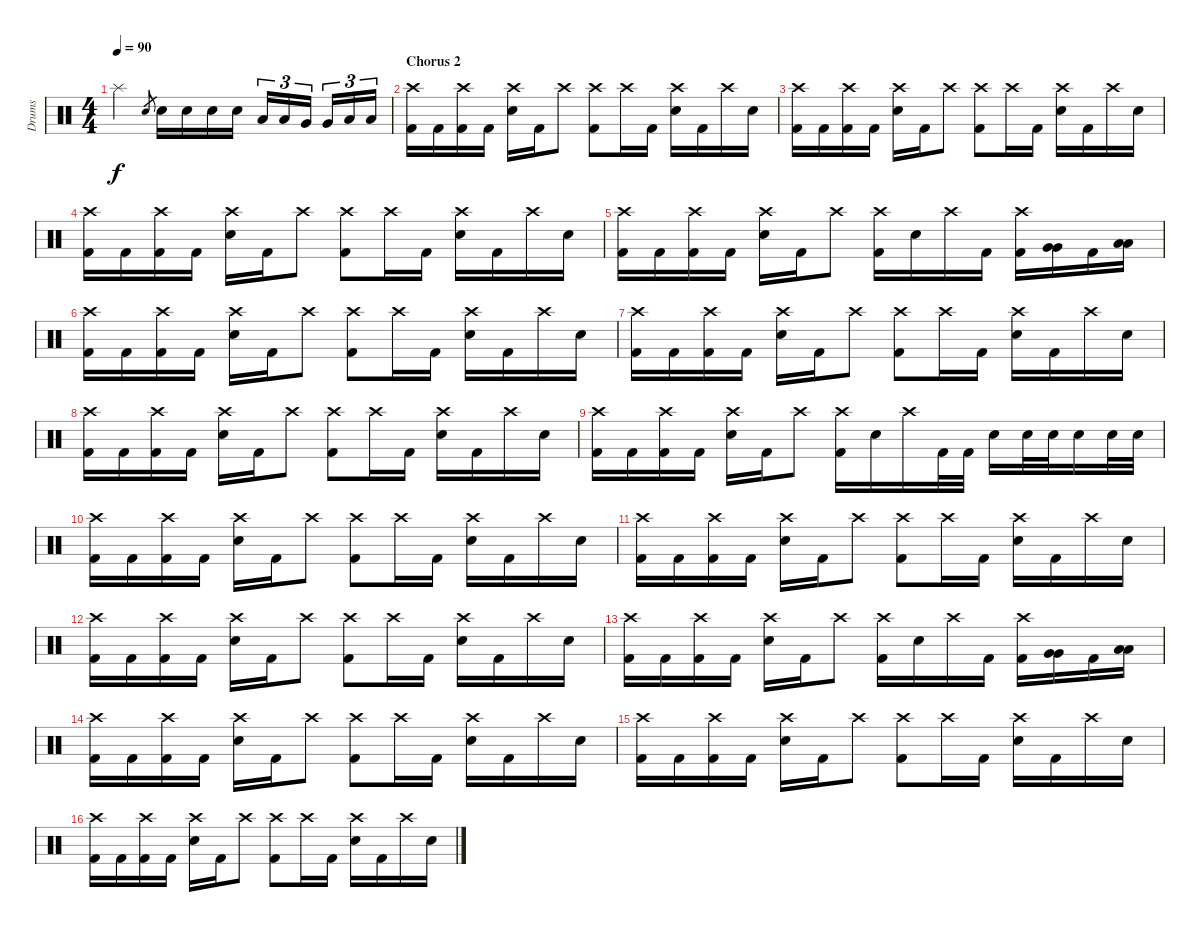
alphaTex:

\track ("Drums" "Drums") {instrument percussion}
\staff {score}
\articulation defaults
\ts (4 4)
\tempo 90
\clef neutral
\ks c "Splash (hit)".2{dy f volume 16} "Electric Snare (hit)".8{gr} "Electric Snare (hit)".16 "Electric Snare (hit)".16 "Electric Snare (hit)".16 "Electric Snare (hit)".16 "Low Tom (hit)".16{tu (3 2)} "Low Tom (hit)".16{tu (3 2)} "Very Low Tom (hit)".16{tu (3 2)} "Very Low Tom (hit)".16{tu (3 2)} "Low Floor Tom (hit)".16{tu (3 2)} "Low Floor Tom (hit)".16{tu (3 2)}
|
\section ("" "Chorus 2")
("Crash high (hit)" "Kick (hit) 2").16 "Kick (hit) 2".16 ("Crash high (hit)" "Kick (hit) 2").16 "Kick (hit) 2".16 ("Crash high (hit)" "Electric Snare (hit)").16 "Kick (hit) 2".16 "Crash high (hit)".8 ("Crash high (hit)" "Kick (hit) 2").8 "Crash high (hit)".16 "Kick (hit) 2".16 ("Crash high (hit)" "Electric Snare (hit)").16 "Kick (hit) 2".16 "Crash high (hit)".16 "Electric Snare (hit)".16 |
("Crash high (hit)" "Kick (hit) 2").16 "Kick (hit) 2".16 ("Crash high (hit)" "Kick (hit) 2").16 "Kick (hit) 2".16 ("Crash high (hit)" "Electric Snare (hit)").16 "Kick (hit) 2".16 "Crash high (hit)".8 ("Crash high (hit)" "Kick (hit) 2").8 "Crash high (hit)".16 "Kick (hit) 2".16 ("Crash high (hit)" "Electric Snare (hit)").16 "Kick (hit) 2".16 "Crash high (hit)".16 "Electric Snare (hit)".16 |
("Crash high (hit)" "Kick (hit) 2").16 "Kick (hit) 2".16 ("Crash high (hit)" "Kick (hit) 2").16 "Kick (hit) 2".16 ("Crash high (hit)" "Electric Snare (hit)").16 "Kick (hit) 2".16 "Crash high (hit)".8 ("Crash high (hit)" "Kick (hit) 2").8 "Crash high (hit)".16 "Kick (hit) 2".16 ("Crash high (hit)" "Electric Snare (hit)").16 "Kick (hit) 2".16 "Crash high (hit)".16 "Electric Snare (hit)".16 |
("Crash high (hit)" "Kick (hit) 2").16 "Kick (hit) 2".16 ("Crash high (hit)" "Kick (hit) 2").16 "Kick (hit) 2".16 ("Crash high (hit)" "Electric Snare (hit)").16 "Kick (hit) 2".16 "Crash high (hit)".8 ("Crash high (hit)" "Kick (hit) 2").16 "Electric Snare (hit)".16 "Crash high (hit)".16 "Kick (hit) 2".16 ("Crash high (hit)" "Kick (hit) 2").16 ("Very Low Tom (hit)" "Very Low Tom (hit)").16 "Kick (hit) 2".16 ("Low Floor Tom (hit)" "Low Floor Tom (hit)").16 |
("Crash high (hit)" "Kick (hit) 2").16 "Kick (hit) 2".16 ("Crash high (hit)" "Kick (hit) 2").16 "Kick (hit) 2".16 ("Crash high (hit)" "Electric Snare (hit)").16 "Kick (hit) 2".16 "Crash high (hit)".8 ("Crash high (hit)" "Kick (hit) 2").8 "Crash high (hit)".16 "Kick (hit) 2".16 ("Crash high (hit)" "Electric Snare (hit)").16 "Kick (hit) 2".16 "Crash high (hit)".16 "Electric Snare (hit)".16 |
("Crash high (hit)" "Kick (hit) 2").16 "Kick (hit) 2".16 ("Crash high (hit)" "Kick (hit) 2").16 "Kick (hit) 2".16 ("Crash high (hit)" "Electric Snare (hit)").16 "Kick (hit) 2".16 "Crash high (hit)".8 ("Crash high (hit)" "Kick (hit) 2").8 "Crash high (hit)".16 "Kick (hit) 2".16 ("Crash high (hit)" "Electric Snare (hit)").16 "Kick (hit) 2".16 "Crash high (hit)".16 "Electric Snare (hit)".16 |
("Crash high (hit)" "Kick (hit) 2").16 "Kick (hit) 2".16 ("Crash high (hit)" "Kick (hit) 2").16 "Kick (hit) 2".16 ("Crash high (hit)" "Electric Snare (hit)").16 "Kick (hit) 2".16 "Crash high (hit)".8 ("Crash high (hit)" "Kick (hit) 2").8 "Crash high (hit)".16 "Kick (hit) 2".16 ("Crash high (hit)" "Electric Snare (hit)").16 "Kick (hit) 2".16 "Crash high (hit)".16 "Electric Snare (hit)".16 |
("Crash high (hit)" "Kick (hit) 2").16 "Kick (hit) 2".16 ("Crash high (hit)" "Kick (hit) 2").16 "Kick (hit) 2".16 ("Crash high (hit)" "Electric Snare (hit)").16 "Kick (hit) 2".16 "Crash high (hit)".8 ("Crash high (hit)" "Kick (hit) 2").16 "Electric Snare (hit)".16 "Crash high (hit)".16 "Kick (hit) 2".32 "Kick (hit) 2".32 "Electric Snare (hit)".16 "Electric Snare (hit)".32 "Electric Snare (hit)".32 "Electric Snare (hit)".16 "Electric Snare (hit)".32 "Electric Snare (hit)".32 |
("Crash high (hit)" "Kick (hit) 2").16 "Kick (hit) 2".16 ("Crash high (hit)" "Kick (hit) 2").16 "Kick (hit) 2".16 ("Crash high (hit)" "Electric Snare (hit)").16 "Kick (hit) 2".16 "Crash high (hit)".8 ("Crash high (hit)" "Kick (hit) 2").8 "Crash high (hit)".16 "Kick (hit) 2".16 ("Crash high (hit)" "Electric Snare (hit)").16 "Kick (hit) 2".16 "Crash high (hit)".16 "Electric Snare (hit)".16 |
("Crash high (hit)" "Kick (hit) 2").16 "Kick (hit) 2".16 ("Crash high (hit)" "Kick (hit) 2").16 "Kick (hit) 2".16 ("Crash high (hit)" "Electric Snare (hit)").16 "Kick (hit) 2".16 "Crash high (hit)".8 ("Crash high (hit)" "Kick (hit) 2").8 "Crash high (hit)".16 "Kick (hit) 2".16 ("Crash high (hit)" "Electric Snare (hit)").16 "Kick (hit) 2".16 "Crash high (hit)".16 "Electric Snare (hit)".16 |
("Crash high (hit)" "Kick (hit) 2").16 "Kick (hit) 2".16 ("Crash high (hit)" "Kick (hit) 2").16 "Kick (hit) 2".16 ("Crash high (hit)" "Electric Snare (hit)").16 "Kick (hit) 2".16 "Crash high (hit)".8 ("Crash high (hit)" "Kick (hit) 2").8 "Crash high (hit)".16 "Kick (hit) 2".16 ("Crash high (hit)" "Electric Snare (hit)").16 "Kick (hit) 2".16 "Crash high (hit)".16 "Electric Snare (hit)".16 |
("Crash high (hit)" "Kick (hit) 2").16 "Kick (hit) 2".16 ("Crash high (hit)" "Kick (hit) 2").16 "Kick (hit) 2".16 ("Crash high (hit)" "Electric Snare (hit)").16 "Kick (hit) 2".16 "Crash high (hit)".8 ("Crash high (hit)" "Kick (hit) 2").16 "Electric Snare (hit)".16 "Crash high (hit)".16 "Kick (hit) 2".16 ("Crash high (hit)" "Kick (hit) 2").16 ("Very Low Tom (hit)" "Very Low Tom (hit)").16 "Kick (hit) 2".16 ("Low Floor Tom (hit)" "Low Floor Tom (hit)").16 |
("Crash high (hit)" "Kick (hit) 2").16 "Kick (hit) 2".16 ("Crash high (hit)" "Kick (hit) 2").16 "Kick (hit) 2".16 ("Crash high (hit)" "Electric Snare (hit)").16 "Kick (hit) 2".16 "Crash high (hit)".8 ("Crash high (hit)" "Kick (hit) 2").8 "Crash high (hit)".16 "Kick (hit) 2".16 ("Crash high (hit)" "Electric Snare (hit)").16 "Kick (hit) 2".16 "Crash high (hit)".16 "Electric Snare (hit)".16 |
("Crash high (hit)" "Kick (hit) 2").16 "Kick (hit) 2".16 ("Crash high (hit)" "Kick (hit) 2").16 "Kick (hit) 2".16 ("Crash high (hit)" "Electric Snare (hit)").16 "Kick (hit) 2".16 "Crash high (hit)".8 ("Crash high (hit)" "Kick (hit) 2").8 "Crash high (hit)".16 "Kick (hit) 2".16 ("Crash high (hit)" "Electric Snare (hit)").16 "Kick (hit) 2".16 "Crash high (hit)".16 "Electric Snare (hit)".16 |
("Crash high (hit)" "Kick (hit) 2").16 "Kick (hit) 2".16 ("Crash high (hit)" "Kick (hit) 2").16 "Kick (hit) 2".16 ("Crash high (hit)" "Electric Snare (hit)").16 "Kick (hit) 2".16 "Crash high (hit)".8 ("Crash high (hit)" "Kick (hit) 2").8 "Crash high (hit)".16 "Kick (hit) 2".16 ("Crash high (hit)" "Electric Snare (hit)").16 "Kick (hit) 2".16 "Crash high (hit)".16 "Electric Snare (hit)".16
